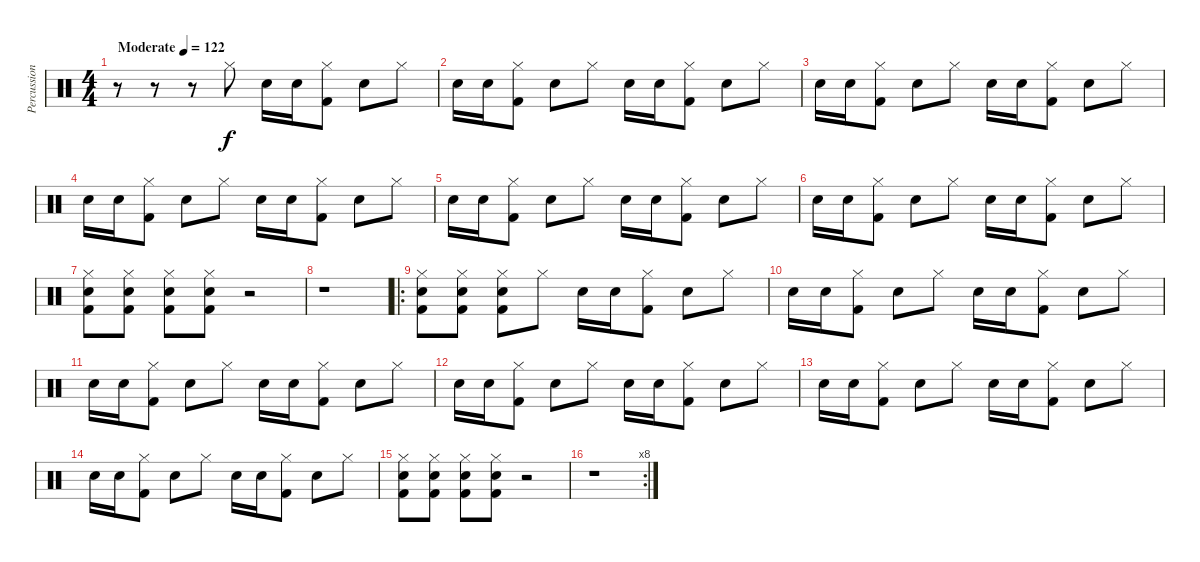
\track ("Percussion" "Percussion") {instrument percussion}
\staff {score}
\articulation defaults
\ts (4 4)
\tempo (122 "Moderate")
\clef neutral
\ks c
r.8{dy f} r.8 r.8 "Hi-Hat (closed)".8 "Snare (hit) 2".16 "Snare (hit) 2".16 ("Hi-Hat (closed)" "Kick (hit) 2").8 "Snare (hit) 2".8 "Hi-Hat (closed)".8 |
"Snare (hit) 2".16 "Snare (hit) 2".16 ("Hi-Hat (closed)" "Kick (hit) 2").8 "Snare (hit) 2".8 "Hi-Hat (closed)".8 "Snare (hit) 2".16 "Snare (hit) 2".16 ("Hi-Hat (closed)" "Kick (hit) 2").8 "Snare (hit) 2".8 "Hi-Hat (closed)".8 |
"Snare (hit) 2".16 "Snare (hit) 2".16 ("Hi-Hat (closed)" "Kick (hit) 2").8 "Snare (hit) 2".8 "Hi-Hat (closed)".8 "Snare (hit) 2".16 "Snare (hit) 2".16 ("Hi-Hat (closed)" "Kick (hit) 2").8 "Snare (hit) 2".8 "Hi-Hat (closed)".8 |
"Snare (hit) 2".16 "Snare (hit) 2".16 ("Hi-Hat (closed)" "Kick (hit) 2").8 "Snare (hit) 2".8 "Hi-Hat (closed)".8 "Snare (hit) 2".16 "Snare (hit) 2".16 ("Hi-Hat (closed)" "Kick (hit) 2").8 "Snare (hit) 2".8 "Hi-Hat (closed)".8 |
"Snare (hit) 2".16 "Snare (hit) 2".16 ("Hi-Hat (closed)" "Kick (hit) 2").8 "Snare (hit) 2".8 "Hi-Hat (closed)".8 "Snare (hit) 2".16 "Snare (hit) 2".16 ("Hi-Hat (closed)" "Kick (hit) 2").8 "Snare (hit) 2".8 "Hi-Hat (closed)".8 |
"Snare (hit) 2".16 "Snare (hit) 2".16 ("Hi-Hat (closed)" "Kick (hit) 2").8 "Snare (hit) 2".8 "Hi-Hat (closed)".8 "Snare (hit) 2".16 "Snare (hit) 2".16 ("Hi-Hat (closed)" "Kick (hit) 2").8 "Snare (hit) 2".8 "Hi-Hat (closed)".8 |
("Snare (hit) 2" "Hi-Hat (closed)" "Kick (hit) 2").8 ("Snare (hit) 2" "Hi-Hat (closed)" "Kick (hit) 2").8 ("Snare (hit) 2" "Hi-Hat (closed)" "Kick (hit) 2").8 ("Snare (hit) 2" "Hi-Hat (closed)" "Kick (hit) 2").8 r.2 |
r.1 |
\ro
("Snare (hit) 2" "Hi-Hat (closed)" "Kick (hit) 2").8 ("Snare (hit) 2" "Hi-Hat (closed)" "Kick (hit) 2").8 ("Snare (hit) 2" "Hi-Hat (closed)" "Kick (hit) 2").8 "Hi-Hat (closed)".8 "Snare (hit) 2".16 "Snare (hit) 2".16 ("Hi-Hat (closed)" "Kick (hit) 2").8 "Snare (hit) 2".8 "Hi-Hat (closed)".8 |
"Snare (hit) 2".16 "Snare (hit) 2".16 ("Hi-Hat (closed)" "Kick (hit) 2").8 "Snare (hit) 2".8 "Hi-Hat (closed)".8 "Snare (hit) 2".16 "Snare (hit) 2".16 ("Hi-Hat (closed)" "Kick (hit) 2").8 "Snare (hit) 2".8 "Hi-Hat (closed)".8 |
"Snare (hit) 2".16 "Snare (hit) 2".16 ("Hi-Hat (closed)" "Kick (hit) 2").8 "Snare (hit) 2".8 "Hi-Hat (closed)".8 "Snare (hit) 2".16 "Snare (hit) 2".16 ("Hi-Hat (closed)" "Kick (hit) 2").8 "Snare (hit) 2".8 "Hi-Hat (closed)".8 |
"Snare (hit) 2".16 "Snare (hit) 2".16 ("Hi-Hat (closed)" "Kick (hit) 2").8 "Snare (hit) 2".8 "Hi-Hat (closed)".8 "Snare (hit) 2".16 "Snare (hit) 2".16 ("Hi-Hat (closed)" "Kick (hit) 2").8 "Snare (hit) 2".8 "Hi-Hat (closed)".8 |
"Snare (hit) 2".16 "Snare (hit) 2".16 ("Hi-Hat (closed)" "Kick (hit) 2").8 "Snare (hit) 2".8 "Hi-Hat (closed)".8 "Snare (hit) 2".16 "Snare (hit) 2".16 ("Hi-Hat (closed)" "Kick (hit) 2").8 "Snare (hit) 2".8 "Hi-Hat (closed)".8 |
"Snare (hit) 2".16 "Snare (hit) 2".16 ("Hi-Hat (closed)" "Kick (hit) 2").8 "Snare (hit) 2".8 "Hi-Hat (closed)".8 "Snare (hit) 2".16 "Snare (hit) 2".16 ("Hi-Hat (closed)" "Kick (hit) 2").8 "Snare (hit) 2".8 "Hi-Hat (closed)".8 |
("Snare (hit) 2" "Hi-Hat (closed)" "Kick (hit) 2").8 ("Snare (hit) 2" "Hi-Hat (closed)" "Kick (hit) 2").8 ("Snare (hit) 2" "Hi-Hat (closed)" "Kick (hit) 2").8 ("Snare (hit) 2" "Hi-Hat (closed)" "Kick (hit) 2").8 r.2 |
\rc 8
r.1
